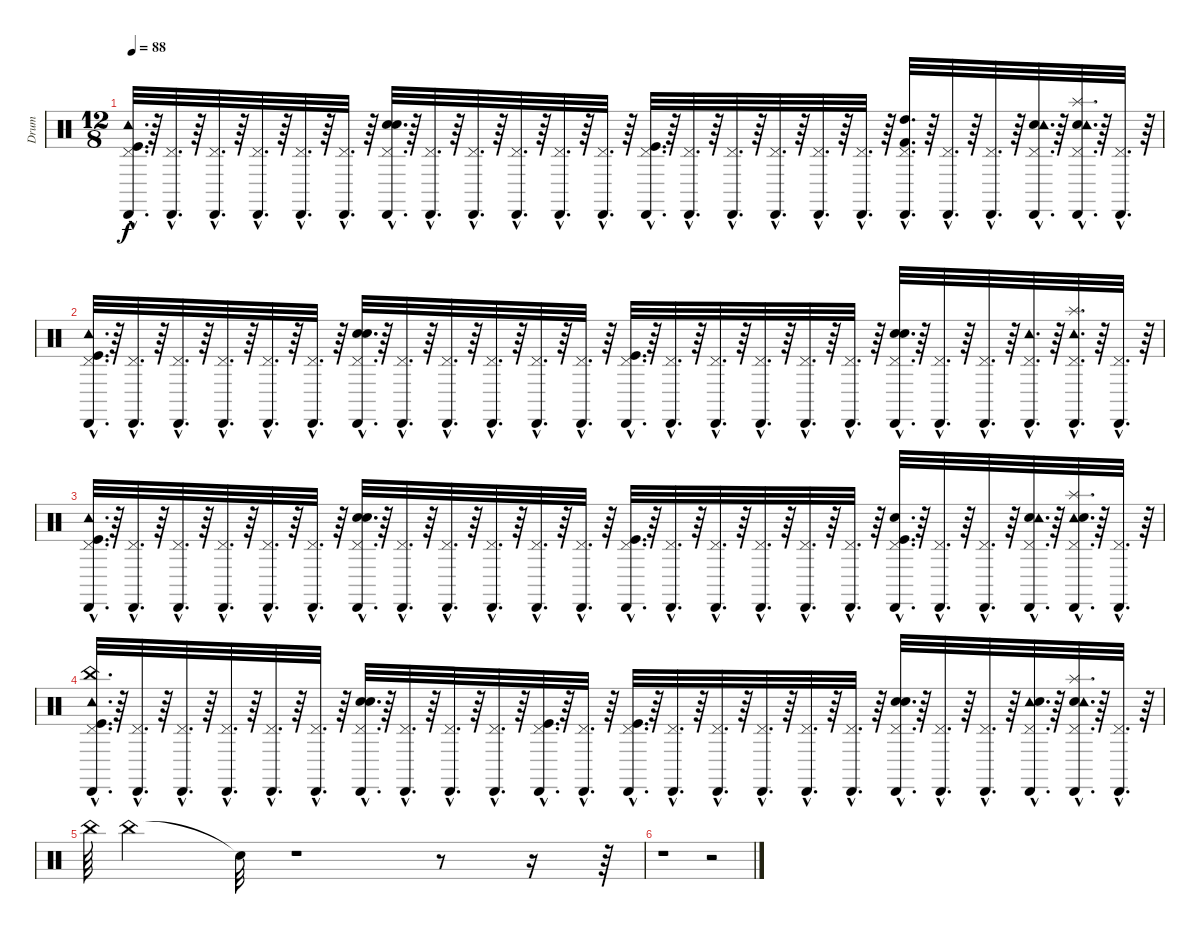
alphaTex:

\track ("Drum" "Drum") {instrument percussion}
\staff {score}
\articulation defaults
\ts (12 8)
\tempo 88
\clef neutral
\ks c
("Tambourine (hit)"{hac} "Pedal Hi-Hat (hit)"{hac} "Kick (hit)"{hac} "Cabasa (hit)"{hac}).32{d dy f} r.64 ("Pedal Hi-Hat (hit)"{hac} "Cabasa (hit)"{hac}).32{d} r.64 ("Cabasa (hit)"{hac} "Pedal Hi-Hat (hit)"{hac}).32{d} r.64 ("Cabasa (hit)"{hac} "Pedal Hi-Hat (hit)"{hac}).32{d} r.64 ("Pedal Hi-Hat (hit)"{hac} "Cabasa (hit)"{hac}).32{d} r.64 ("Cabasa (hit)"{hac} "Pedal Hi-Hat (hit)"{hac}).32{d} r.64 ("Electric Snare (hit)"{hac} "Cabasa (hit)"{hac} "Snare (hit) 2"{hac} "Pedal Hi-Hat (hit)"{hac}).32{d} r.64 ("Pedal Hi-Hat (hit)"{hac} "Cabasa (hit)"{hac}).32{d} r.64 ("Pedal Hi-Hat (hit)"{hac} "Cabasa (hit)"{hac}).32{d} r.64 ("Cabasa (hit)"{hac} "Pedal Hi-Hat (hit)"{hac}).32{d} r.64 ("Pedal Hi-Hat (hit)"{hac} "Cabasa (hit)"{hac}).32{d} r.64 ("Pedal Hi-Hat (hit)"{hac} "Cabasa (hit)"{hac}).32{d} r.64 ("Pedal Hi-Hat (hit)"{hac} "Kick (hit)"{hac} "Cabasa (hit)"{hac}).32{d} r.64 ("Pedal Hi-Hat (hit)"{hac} "Cabasa (hit)"{hac}).32{d} r.64 ("Cabasa (hit)"{hac} "Pedal Hi-Hat (hit)"{hac}).32{d} r.64 ("Cabasa (hit)"{hac} "Pedal Hi-Hat (hit)"{hac}).32{d} r.64 ("Pedal Hi-Hat (hit)"{hac} "Cabasa (hit)"{hac}).32{d} r.64 ("Cabasa (hit)"{hac} "Pedal Hi-Hat (hit)"{hac}).32{d} r.64 ("Cabasa (hit)"{hac} "Kick (hit) 2"{hac} "Pedal Hi-Hat (hit)"{hac} "High Tom (hit)"{hac}).32{d} r.64 ("Cabasa (hit)"{hac} "Pedal Hi-Hat (hit)"{hac}).32{d} r.64 ("Cabasa (hit)"{hac} "Pedal Hi-Hat (hit)"{hac}).32{d} r.64 ("Cabasa (hit)"{hac} "Pedal Hi-Hat (hit)"{hac} "Snare (hit) 2"{hac} "Tambourine (hit)"{hac}).32{d} r.64 ("Cabasa (hit)"{hac} "Snare (hit) 2"{hac} "Pedal Hi-Hat (hit)"{hac} "Tambourine (hit)"{hac} "Splash (hit)"{hac}).32{d} r.64 ("Cabasa (hit)"{hac} "Pedal Hi-Hat (hit)"{hac}).32{d} r.64 |
("Tambourine (hit)"{hac} "Cabasa (hit)"{hac} "Pedal Hi-Hat (hit)"{hac} "Kick (hit)"{hac}).32{d} r.64 ("Cabasa (hit)"{hac} "Pedal Hi-Hat (hit)"{hac}).32{d} r.64 ("Cabasa (hit)"{hac} "Pedal Hi-Hat (hit)"{hac}).32{d} r.64 ("Cabasa (hit)"{hac} "Pedal Hi-Hat (hit)"{hac}).32{d} r.64 ("Cabasa (hit)"{hac} "Pedal Hi-Hat (hit)"{hac}).32{d} r.64 ("Pedal Hi-Hat (hit)"{hac} "Cabasa (hit)"{hac}).32{d} r.64 ("Snare (hit) 2"{hac} "Pedal Hi-Hat (hit)"{hac} "Electric Snare (hit)"{hac} "Cabasa (hit)"{hac}).32{d} r.64 ("Cabasa (hit)"{hac} "Pedal Hi-Hat (hit)"{hac}).32{d} r.64 ("Cabasa (hit)"{hac} "Pedal Hi-Hat (hit)"{hac}).32{d} r.64 ("Pedal Hi-Hat (hit)"{hac} "Cabasa (hit)"{hac}).32{d} r.64 ("Pedal Hi-Hat (hit)"{hac} "Cabasa (hit)"{hac}).32{d} r.64 ("Cabasa (hit)"{hac} "Pedal Hi-Hat (hit)"{hac}).32{d} r.64 ("Cabasa (hit)"{hac} "Pedal Hi-Hat (hit)"{hac} "Kick (hit)"{hac}).32{d} r.64 ("Cabasa (hit)"{hac} "Pedal Hi-Hat (hit)"{hac}).32{d} r.64 ("Cabasa (hit)"{hac} "Pedal Hi-Hat (hit)"{hac}).32{d} r.64 ("Cabasa (hit)"{hac} "Pedal Hi-Hat (hit)"{hac}).32{d} r.64 ("Pedal Hi-Hat (hit)"{hac} "Cabasa (hit)"{hac}).32{d} r.64 ("Cabasa (hit)"{hac} "Pedal Hi-Hat (hit)"{hac}).32{d} r.64 ("Pedal Hi-Hat (hit)"{hac} "Snare (hit) 2"{hac} "Electric Snare (hit)"{hac} "Cabasa (hit)"{hac}).32{d} r.64 ("Pedal Hi-Hat (hit)"{hac} "Cabasa (hit)"{hac}).32{d} r.64 ("Cabasa (hit)"{hac} "Pedal Hi-Hat (hit)"{hac}).32{d} r.64 ("Cabasa (hit)"{hac} "Pedal Hi-Hat (hit)"{hac} "Tambourine (hit)"{hac}).32{d} r.64 ("Tambourine (hit)"{hac} "Pedal Hi-Hat (hit)"{hac} "Cabasa (hit)"{hac} "Splash (hit)"{hac}).32{d} r.64 ("Cabasa (hit)"{hac} "Pedal Hi-Hat (hit)"{hac}).32{d} r.64 |
("Cabasa (hit)"{hac} "Pedal Hi-Hat (hit)"{hac} "Kick (hit)"{hac} "Tambourine (hit)"{hac}).32{d} r.64 ("Pedal Hi-Hat (hit)"{hac} "Cabasa (hit)"{hac}).32{d} r.64 ("Cabasa (hit)"{hac} "Pedal Hi-Hat (hit)"{hac}).32{d} r.64 ("Cabasa (hit)"{hac} "Pedal Hi-Hat (hit)"{hac}).32{d} r.64 ("Pedal Hi-Hat (hit)"{hac} "Cabasa (hit)"{hac}).32{d} r.64 ("Cabasa (hit)"{hac} "Pedal Hi-Hat (hit)"{hac}).32{d} r.64 ("Cabasa (hit)"{hac} "Electric Snare (hit)"{hac} "Snare (hit) 2"{hac} "Pedal Hi-Hat (hit)"{hac}).32{d} r.64 ("Cabasa (hit)"{hac} "Pedal Hi-Hat (hit)"{hac}).32{d} r.64 ("Cabasa (hit)"{hac} "Pedal Hi-Hat (hit)"{hac}).32{d} r.64 ("Cabasa (hit)"{hac} "Pedal Hi-Hat (hit)"{hac}).32{d} r.64 ("Cabasa (hit)"{hac} "Pedal Hi-Hat (hit)"{hac}).32{d} r.64 ("Pedal Hi-Hat (hit)"{hac} "Cabasa (hit)"{hac}).32{d} r.64 ("Kick (hit)"{hac} "Pedal Hi-Hat (hit)"{hac} "Cabasa (hit)"{hac}).32{d} r.64 ("Cabasa (hit)"{hac} "Pedal Hi-Hat (hit)"{hac}).32{d} r.64 ("Pedal Hi-Hat (hit)"{hac} "Cabasa (hit)"{hac}).32{d} r.64 ("Cabasa (hit)"{hac} "Pedal Hi-Hat (hit)"{hac}).32{d} r.64 ("Cabasa (hit)"{hac} "Pedal Hi-Hat (hit)"{hac}).32{d} r.64 ("Pedal Hi-Hat (hit)"{hac} "Cabasa (hit)"{hac}).32{d} r.64 ("Pedal Hi-Hat (hit)"{hac} "Electric Snare (hit)"{hac} "Kick (hit)"{hac} "Cabasa (hit)"{hac}).32{d} r.64 ("Cabasa (hit)"{hac} "Pedal Hi-Hat (hit)"{hac}).32{d} r.64 ("Pedal Hi-Hat (hit)"{hac} "Cabasa (hit)"{hac}).32{d} r.64 ("Snare (hit) 2"{hac} "Pedal Hi-Hat (hit)"{hac} "Tambourine (hit)"{hac} "Cabasa (hit)"{hac}).32{d} r.64 ("Tambourine (hit)"{hac} "Splash (hit)"{hac} "Cabasa (hit)"{hac} "Pedal Hi-Hat (hit)"{hac} "Snare (hit) 2"{hac}).32{d} r.64 ("Pedal Hi-Hat (hit)"{hac} "Cabasa (hit)"{hac}).32{d} r.64 |
("China (hit)"{hac} "Tambourine (hit)"{hac} "Kick (hit)"{hac} "Pedal Hi-Hat (hit)"{hac} "Cabasa (hit)"{hac}).32{d} r.64 ("Cabasa (hit)"{hac} "Pedal Hi-Hat (hit)"{hac}).32{d} r.64 ("Pedal Hi-Hat (hit)"{hac} "Cabasa (hit)"{hac}).32{d} r.64 ("Pedal Hi-Hat (hit)"{hac} "Cabasa (hit)"{hac}).32{d} r.64 ("Cabasa (hit)"{hac} "Pedal Hi-Hat (hit)"{hac}).32{d} r.64 ("Pedal Hi-Hat (hit)"{hac} "Cabasa (hit)"{hac}).32{d} r.64 ("Pedal Hi-Hat (hit)"{hac} "Snare (hit) 2"{hac} "Electric Snare (hit)"{hac} "Cabasa (hit)"{hac}).32{d} r.64 ("Pedal Hi-Hat (hit)"{hac} "Cabasa (hit)"{hac}).32{d} r.64 ("Pedal Hi-Hat (hit)"{hac} "Cabasa (hit)"{hac}).32{d} r.64 ("Pedal Hi-Hat (hit)"{hac} "Cabasa (hit)"{hac}).32{d} r.64 ("Kick (hit)"{hac} "Pedal Hi-Hat (hit)"{hac} "Cabasa (hit)"{hac}).32{d} r.64 ("Cabasa (hit)"{hac} "Pedal Hi-Hat (hit)"{hac}).32{d} r.64 ("Cabasa (hit)"{hac} "Pedal Hi-Hat (hit)"{hac} "Kick (hit)"{hac}).32{d} r.64 ("Pedal Hi-Hat (hit)"{hac} "Cabasa (hit)"{hac}).32{d} r.64 ("Cabasa (hit)"{hac} "Pedal Hi-Hat (hit)"{hac}).32{d} r.64 ("Pedal Hi-Hat (hit)"{hac} "Cabasa (hit)"{hac}).32{d} r.64 ("Pedal Hi-Hat (hit)"{hac} "Cabasa (hit)"{hac}).32{d} r.64 ("Cabasa (hit)"{hac} "Pedal Hi-Hat (hit)"{hac}).32{d} r.64 ("Electric Snare (hit)"{hac} "Cabasa (hit)"{hac} "Snare (hit) 2"{hac} "Pedal Hi-Hat (hit)"{hac}).32{d} r.64 ("Pedal Hi-Hat (hit)"{hac} "Cabasa (hit)"{hac}).32{d} r.64 ("Cabasa (hit)"{hac} "Pedal Hi-Hat (hit)"{hac}).32{d} r.64 ("Cabasa (hit)"{hac} "Tambourine (hit)"{hac} "Pedal Hi-Hat (hit)"{hac} "Snare (hit) 2"{hac}).32{d} r.64 ("Snare (hit) 2"{hac} "Pedal Hi-Hat (hit)"{hac} "Cabasa (hit)"{hac} "Splash (hit)"{hac} "Tambourine (hit)"{hac}).32{d} r.64 ("Cabasa (hit)"{hac} "Pedal Hi-Hat (hit)"{hac}).32{d} r.64 |
"China (hit)".64 "China (hit)".4 "Snare (hit)"{t}.32 r.1 r.8 r.16 r.64 |
r.1 r.2
